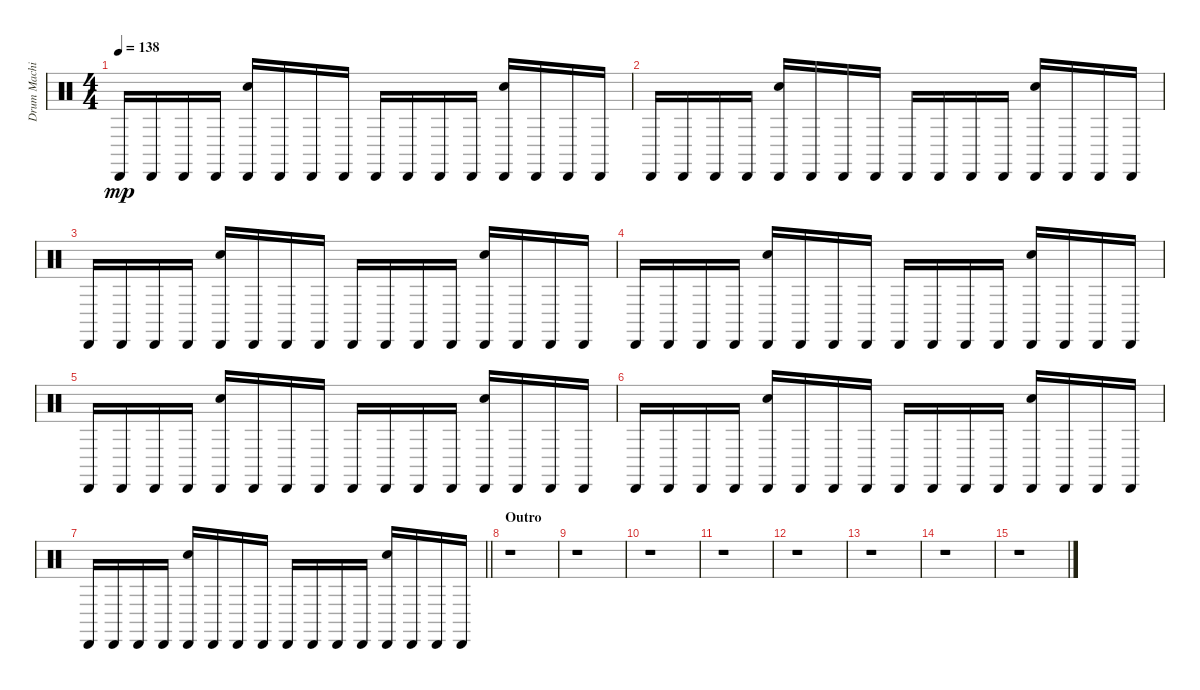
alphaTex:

\track ("Drum Machine" "Drum Machi") {instrument percussion}
\staff {score}
\articulation defaults
\ts (4 4)
\tempo 138
\clef neutral
\ks c "Cabasa (hit)".16{dy mp} "Cabasa (hit)".16 "Cabasa (hit)".16 "Cabasa (hit)".16
("Cabasa (hit)" "Hand Clap (hit)").16 "Cabasa (hit)".16 "Cabasa (hit)".16 "Cabasa (hit)".16 "Cabasa (hit)".16 "Cabasa (hit)".16 "Cabasa (hit)".16 "Cabasa (hit)".16 ("Cabasa (hit)" "Hand Clap (hit)").16 "Cabasa (hit)".16 "Cabasa (hit)".16 "Cabasa (hit)".16 |
"Cabasa (hit)".16 "Cabasa (hit)".16 "Cabasa (hit)".16 "Cabasa (hit)".16 ("Cabasa (hit)" "Hand Clap (hit)").16 "Cabasa (hit)".16 "Cabasa (hit)".16 "Cabasa (hit)".16 "Cabasa (hit)".16 "Cabasa (hit)".16 "Cabasa (hit)".16 "Cabasa (hit)".16 ("Cabasa (hit)" "Hand Clap (hit)").16 "Cabasa (hit)".16 "Cabasa (hit)".16 "Cabasa (hit)".16 |
"Cabasa (hit)".16 "Cabasa (hit)".16 "Cabasa (hit)".16 "Cabasa (hit)".16 ("Cabasa (hit)" "Hand Clap (hit)").16 "Cabasa (hit)".16 "Cabasa (hit)".16 "Cabasa (hit)".16 "Cabasa (hit)".16 "Cabasa (hit)".16 "Cabasa (hit)".16 "Cabasa (hit)".16 ("Cabasa (hit)" "Hand Clap (hit)").16 "Cabasa (hit)".16 "Cabasa (hit)".16 "Cabasa (hit)".16 |
"Cabasa (hit)".16 "Cabasa (hit)".16 "Cabasa (hit)".16 "Cabasa (hit)".16 ("Cabasa (hit)" "Hand Clap (hit)").16 "Cabasa (hit)".16 "Cabasa (hit)".16 "Cabasa (hit)".16 "Cabasa (hit)".16 "Cabasa (hit)".16 "Cabasa (hit)".16 "Cabasa (hit)".16 ("Cabasa (hit)" "Hand Clap (hit)").16 "Cabasa (hit)".16 "Cabasa (hit)".16 "Cabasa (hit)".16 |
"Cabasa (hit)".16 "Cabasa (hit)".16 "Cabasa (hit)".16 "Cabasa (hit)".16 ("Cabasa (hit)" "Hand Clap (hit)").16 "Cabasa (hit)".16 "Cabasa (hit)".16 "Cabasa (hit)".16 "Cabasa (hit)".16 "Cabasa (hit)".16 "Cabasa (hit)".16 "Cabasa (hit)".16 ("Cabasa (hit)" "Hand Clap (hit)").16 "Cabasa (hit)".16 "Cabasa (hit)".16 "Cabasa (hit)".16 |
"Cabasa (hit)".16 "Cabasa (hit)".16 "Cabasa (hit)".16 "Cabasa (hit)".16 ("Cabasa (hit)" "Hand Clap (hit)").16 "Cabasa (hit)".16 "Cabasa (hit)".16 "Cabasa (hit)".16 "Cabasa (hit)".16 "Cabasa (hit)".16 "Cabasa (hit)".16 "Cabasa (hit)".16 ("Cabasa (hit)" "Hand Clap (hit)").16 "Cabasa (hit)".16 "Cabasa (hit)".16 "Cabasa (hit)".16 |
\barLineRight lightlight "Cabasa (hit)".16 "Cabasa (hit)".16 "Cabasa (hit)".16 "Cabasa (hit)".16
("Cabasa (hit)" "Hand Clap (hit)").16 "Cabasa (hit)".16 "Cabasa (hit)".16 "Cabasa (hit)".16 "Cabasa (hit)".16 "Cabasa (hit)".16 "Cabasa (hit)".16 "Cabasa (hit)".16 ("Cabasa (hit)" "Hand Clap (hit)").16 "Cabasa (hit)".16 "Cabasa (hit)".16 "Cabasa (hit)".16 |
\section ("" "Outro")
r.1 |
r.1 |
r.1 |
r.1 |
r.1 |
r.1 |
r.1 |
r.1
